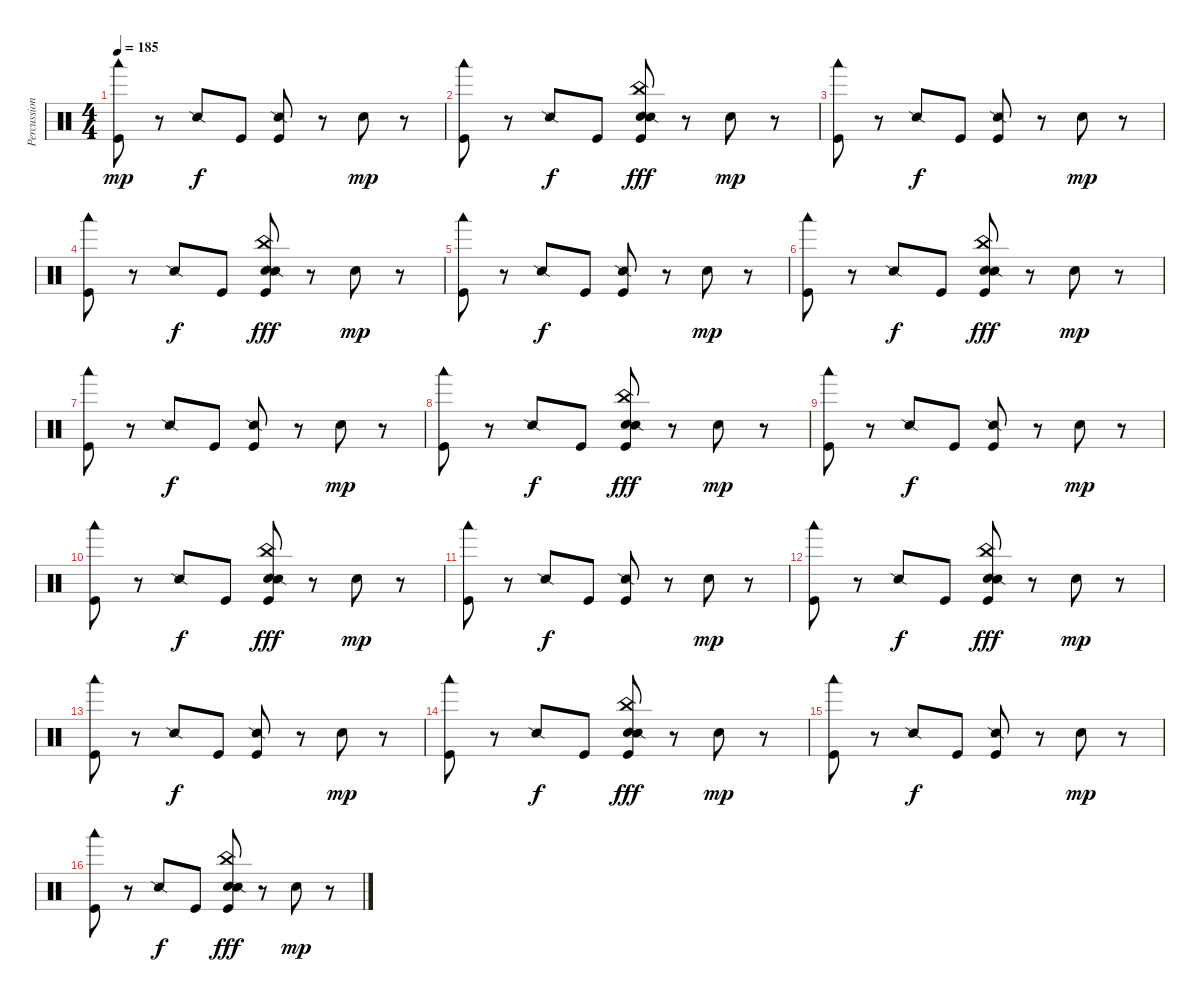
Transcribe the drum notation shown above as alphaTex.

\track ("Percussion" "Percussion") {instrument percussion}
\staff {score}
\articulation defaults
\ts (4 4)
\tempo 185
\clef neutral
\ks c
("Woodblock low (hit)" "Kick (hit)").8{dy mp} r.8 "Snare (side stick) 2".8{dy f} "Kick (hit)".8 ("Snare (side stick) 2" "Kick (hit)").8 r.8 "Electric Snare (hit)".8{dy mp} r.8 |
("Woodblock low (hit)" "Kick (hit)").8 r.8 "Snare (side stick) 2".8{dy f} "Kick (hit)".8 ("China (hit)" "Snare (hit) 2" "Snare (side stick) 2" "Kick (hit)").8{dy fff} r.8 "Electric Snare (hit)".8{dy mp} r.8 |
("Woodblock low (hit)" "Kick (hit)").8 r.8 "Snare (side stick) 2".8{dy f} "Kick (hit)".8 ("Snare (side stick) 2" "Kick (hit)").8 r.8 "Electric Snare (hit)".8{dy mp} r.8 |
("Woodblock low (hit)" "Kick (hit)").8 r.8 "Snare (side stick) 2".8{dy f} "Kick (hit)".8 ("China (hit)" "Snare (hit) 2" "Snare (side stick) 2" "Kick (hit)").8{dy fff} r.8 "Electric Snare (hit)".8{dy mp} r.8 |
("Woodblock low (hit)" "Kick (hit)").8 r.8 "Snare (side stick) 2".8{dy f} "Kick (hit)".8 ("Snare (side stick) 2" "Kick (hit)").8 r.8 "Electric Snare (hit)".8{dy mp} r.8 |
("Woodblock low (hit)" "Kick (hit)").8 r.8 "Snare (side stick) 2".8{dy f} "Kick (hit)".8 ("China (hit)" "Snare (hit) 2" "Snare (side stick) 2" "Kick (hit)").8{dy fff} r.8 "Electric Snare (hit)".8{dy mp} r.8 |
("Woodblock low (hit)" "Kick (hit)").8 r.8 "Snare (side stick) 2".8{dy f} "Kick (hit)".8 ("Snare (side stick) 2" "Kick (hit)").8 r.8 "Electric Snare (hit)".8{dy mp} r.8 |
("Woodblock low (hit)" "Kick (hit)").8 r.8 "Snare (side stick) 2".8{dy f} "Kick (hit)".8 ("China (hit)" "Snare (hit) 2" "Snare (side stick) 2" "Kick (hit)").8{dy fff} r.8 "Electric Snare (hit)".8{dy mp} r.8 |
("Woodblock low (hit)" "Kick (hit)").8 r.8 "Snare (side stick) 2".8{dy f} "Kick (hit)".8 ("Snare (side stick) 2" "Kick (hit)").8 r.8 "Electric Snare (hit)".8{dy mp} r.8 |
("Woodblock low (hit)" "Kick (hit)").8 r.8 "Snare (side stick) 2".8{dy f} "Kick (hit)".8 ("China (hit)" "Snare (hit) 2" "Snare (side stick) 2" "Kick (hit)").8{dy fff} r.8 "Electric Snare (hit)".8{dy mp} r.8 |
("Woodblock low (hit)" "Kick (hit)").8 r.8 "Snare (side stick) 2".8{dy f} "Kick (hit)".8 ("Snare (side stick) 2" "Kick (hit)").8 r.8 "Electric Snare (hit)".8{dy mp} r.8 |
("Woodblock low (hit)" "Kick (hit)").8 r.8 "Snare (side stick) 2".8{dy f} "Kick (hit)".8 ("China (hit)" "Snare (hit) 2" "Snare (side stick) 2" "Kick (hit)").8{dy fff} r.8 "Electric Snare (hit)".8{dy mp} r.8 |
("Woodblock low (hit)" "Kick (hit)").8 r.8 "Snare (side stick) 2".8{dy f} "Kick (hit)".8 ("Snare (side stick) 2" "Kick (hit)").8 r.8 "Electric Snare (hit)".8{dy mp} r.8 |
("Woodblock low (hit)" "Kick (hit)").8 r.8 "Snare (side stick) 2".8{dy f} "Kick (hit)".8 ("China (hit)" "Snare (hit) 2" "Snare (side stick) 2" "Kick (hit)").8{dy fff} r.8 "Electric Snare (hit)".8{dy mp} r.8 |
("Woodblock low (hit)" "Kick (hit)").8 r.8 "Snare (side stick) 2".8{dy f} "Kick (hit)".8 ("Snare (side stick) 2" "Kick (hit)").8 r.8 "Electric Snare (hit)".8{dy mp} r.8 |
("Woodblock low (hit)" "Kick (hit)").8 r.8 "Snare (side stick) 2".8{dy f} "Kick (hit)".8 ("China (hit)" "Snare (hit) 2" "Snare (side stick) 2" "Kick (hit)").8{dy fff} r.8 "Electric Snare (hit)".8{dy mp} r.8
